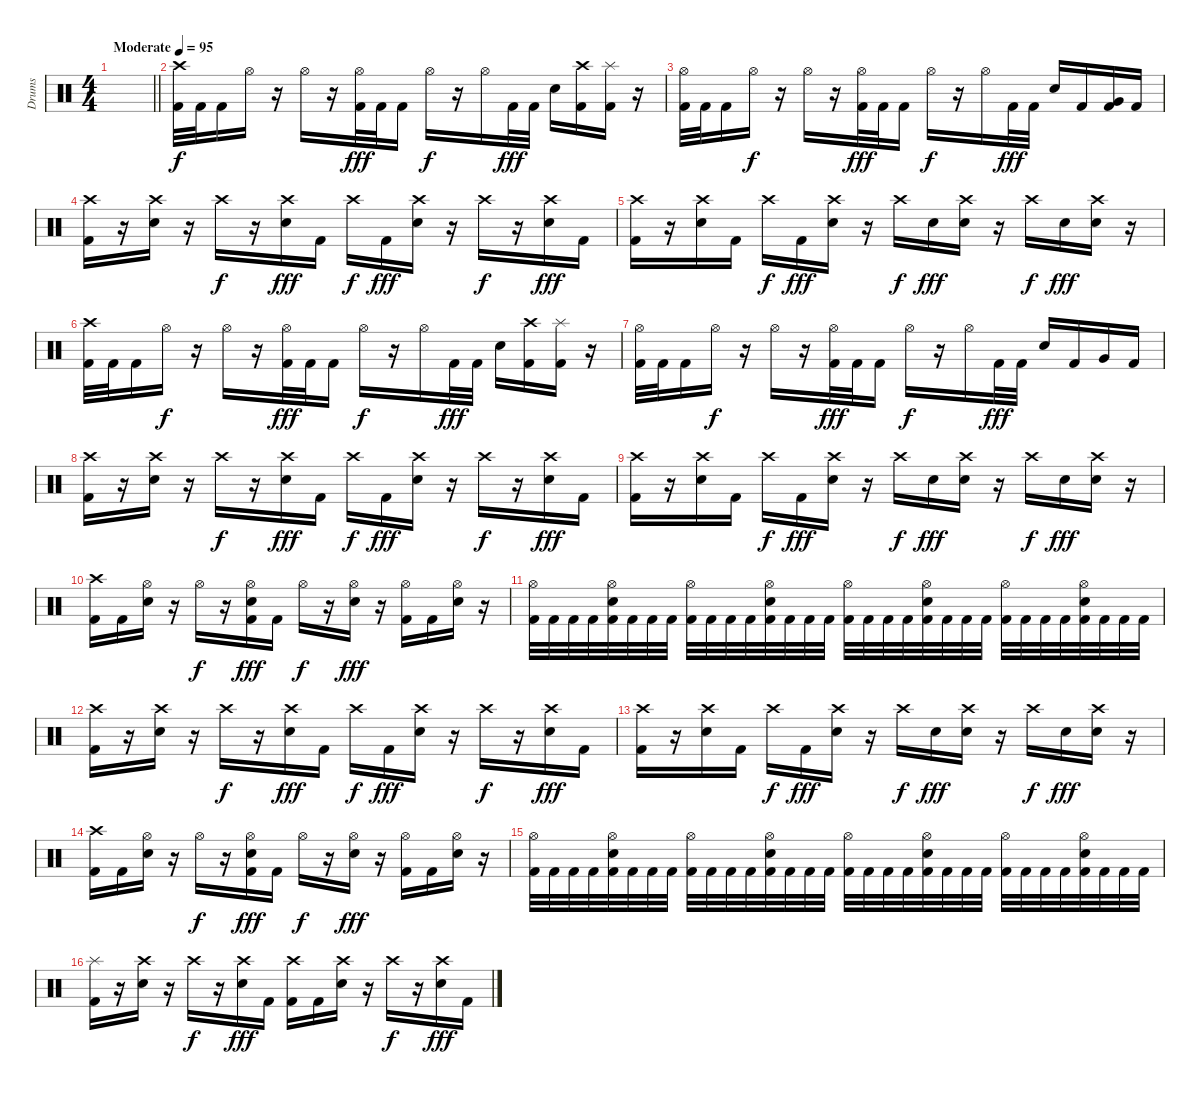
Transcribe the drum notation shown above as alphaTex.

\track ("Drums" "Drums") {instrument percussion}
\staff {score}
\articulation defaults
\ts (4 4)
\tempo (95 "Moderate")
\clef neutral
\barLineRight lightlight
\ks c
|
\section ("" "")
("Crash high (hit)" "Kick (hit) 2").32 "Kick (hit) 2".32 "Kick (hit) 2".16 "Hi-Hat (open)".16{dy f} r.16 "Hi-Hat (open)".16 r.16 ("Hi-Hat (open)" "Kick (hit) 2").32{dy fff} "Kick (hit) 2".32 "Kick (hit) 2".16 "Hi-Hat (open)".16{dy f} r.16 "Hi-Hat (open)".16 "Kick (hit) 2".32{dy fff} "Kick (hit) 2".32 "Electric Snare (hit)".16 ("Crash high (hit)" "Kick (hit) 2").16 ("Splash (hit)" "Kick (hit) 2").16 r.16 |
("Hi-Hat (open)" "Kick (hit) 2").32 "Kick (hit) 2".32 "Kick (hit) 2".16 "Hi-Hat (open)".16{dy f} r.16 "Hi-Hat (open)".16 r.16 ("Hi-Hat (open)" "Kick (hit) 2").32{dy fff} "Kick (hit) 2".32 "Kick (hit) 2".16 "Hi-Hat (open)".16{dy f} r.16 "Hi-Hat (open)".16 "Kick (hit) 2".32{dy fff} "Kick (hit) 2".32 "Electric Snare (hit)".16 "Kick (hit) 2".16 ("Very Low Tom (hit)" "Kick (hit) 2").16 "Kick (hit) 2".16 |
("Crash high (hit)" "Kick (hit) 2").16 r.16 ("Crash high (hit)" "Electric Snare (hit)").16 r.16 "Crash high (hit)".16{dy f} r.16 ("Crash high (hit)" "Electric Snare (hit)").16{dy fff} "Kick (hit) 2".16 "Crash high (hit)".16{dy f} "Kick (hit) 2".16{dy fff} ("Crash high (hit)" "Electric Snare (hit)").16 r.16 "Crash high (hit)".16{dy f} r.16 ("Crash high (hit)" "Electric Snare (hit)").16{dy fff} "Kick (hit) 2".16 |
("Crash high (hit)" "Kick (hit) 2").16 r.16 ("Crash high (hit)" "Electric Snare (hit)").16 "Kick (hit) 2".16 "Crash high (hit)".16{dy f} "Kick (hit) 2".16{dy fff} ("Crash high (hit)" "Electric Snare (hit)").16 r.16 "Crash high (hit)".16{dy f} "Electric Snare (hit)".16{dy fff} ("Crash high (hit)" "Electric Snare (hit)").16 r.16 "Crash high (hit)".16{dy f} "Electric Snare (hit)".16{dy fff} ("Crash high (hit)" "Electric Snare (hit)").16 r.16 |
("Crash high (hit)" "Kick (hit) 2").32 "Kick (hit) 2".32 "Kick (hit) 2".16 "Hi-Hat (open)".16{dy f} r.16 "Hi-Hat (open)".16 r.16 ("Hi-Hat (open)" "Kick (hit) 2").32{dy fff} "Kick (hit) 2".32 "Kick (hit) 2".16 "Hi-Hat (open)".16{dy f} r.16 "Hi-Hat (open)".16 "Kick (hit) 2".32{dy fff} "Kick (hit) 2".32 "Electric Snare (hit)".16 ("Crash high (hit)" "Kick (hit) 2").16 ("Splash (hit)" "Kick (hit) 2").16 r.16 |
("Hi-Hat (open)" "Kick (hit) 2").32 "Kick (hit) 2".32 "Kick (hit) 2".16 "Hi-Hat (open)".16{dy f} r.16 "Hi-Hat (open)".16 r.16 ("Hi-Hat (open)" "Kick (hit) 2").32{dy fff} "Kick (hit) 2".32 "Kick (hit) 2".16 "Hi-Hat (open)".16{dy f} r.16 "Hi-Hat (open)".16 "Kick (hit) 2".32{dy fff} "Kick (hit) 2".32 "Electric Snare (hit)".16 "Kick (hit) 2".16 "Very Low Tom (hit)".16 "Kick (hit) 2".16 |
("Crash high (hit)" "Kick (hit) 2").16 r.16 ("Crash high (hit)" "Electric Snare (hit)").16 r.16 "Crash high (hit)".16{dy f} r.16 ("Crash high (hit)" "Electric Snare (hit)").16{dy fff} "Kick (hit) 2".16 "Crash high (hit)".16{dy f} "Kick (hit) 2".16{dy fff} ("Crash high (hit)" "Electric Snare (hit)").16 r.16 "Crash high (hit)".16{dy f} r.16 ("Crash high (hit)" "Electric Snare (hit)").16{dy fff} "Kick (hit) 2".16 |
("Crash high (hit)" "Kick (hit) 2").16 r.16 ("Crash high (hit)" "Electric Snare (hit)").16 "Kick (hit) 2".16 "Crash high (hit)".16{dy f} "Kick (hit) 2".16{dy fff} ("Crash high (hit)" "Electric Snare (hit)").16 r.16 "Crash high (hit)".16{dy f} "Electric Snare (hit)".16{dy fff} ("Crash high (hit)" "Electric Snare (hit)").16 r.16 "Crash high (hit)".16{dy f} "Electric Snare (hit)".16{dy fff} ("Crash high (hit)" "Electric Snare (hit)").16 r.16 |
("Crash high (hit)" "Kick (hit) 2").16 "Kick (hit) 2".16 ("Hi-Hat (open)" "Electric Snare (hit)").16 r.16 "Hi-Hat (open)".16{dy f} r.16 ("Hi-Hat (open)" "Electric Snare (hit)" "Kick (hit) 2").16{dy fff} "Kick (hit) 2".16 "Hi-Hat (open)".16{dy f} r.16 ("Hi-Hat (open)" "Electric Snare (hit)").16{dy fff} r.16 ("Hi-Hat (open)" "Kick (hit) 2").16 "Kick (hit) 2".16 ("Hi-Hat (open)" "Electric Snare (hit)").16 r.16 |
("Hi-Hat (open)" "Kick (hit) 2").32 "Kick (hit) 2".32 "Kick (hit) 2".32 "Kick (hit) 2".32 ("Hi-Hat (open)" "Electric Snare (hit)" "Kick (hit) 2").32 "Kick (hit) 2".32 "Kick (hit) 2".32 "Kick (hit) 2".32 ("Hi-Hat (open)" "Kick (hit) 2").32 "Kick (hit) 2".32 "Kick (hit) 2".32 "Kick (hit) 2".32 ("Hi-Hat (open)" "Electric Snare (hit)" "Kick (hit) 2").32 "Kick (hit) 2".32 "Kick (hit) 2".32 "Kick (hit) 2".32 ("Hi-Hat (open)" "Kick (hit) 2").32 "Kick (hit) 2".32 "Kick (hit) 2".32 "Kick (hit) 2".32 ("Hi-Hat (open)" "Electric Snare (hit)" "Kick (hit) 2").32 "Kick (hit) 2".32 "Kick (hit) 2".32 "Kick (hit) 2".32 ("Hi-Hat (open)" "Kick (hit) 2").32 "Kick (hit) 2".32 "Kick (hit) 2".32 "Kick (hit) 2".32 ("Hi-Hat (open)" "Electric Snare (hit)" "Kick (hit) 2").32 "Kick (hit) 2".32 "Kick (hit) 2".32 "Kick (hit) 2".32 |
("Crash high (hit)" "Kick (hit) 2").16 r.16 ("Crash high (hit)" "Electric Snare (hit)").16 r.16 "Crash high (hit)".16{dy f} r.16 ("Crash high (hit)" "Electric Snare (hit)").16{dy fff} "Kick (hit) 2".16 "Crash high (hit)".16{dy f} "Kick (hit) 2".16{dy fff} ("Crash high (hit)" "Electric Snare (hit)").16 r.16 "Crash high (hit)".16{dy f} r.16 ("Crash high (hit)" "Electric Snare (hit)").16{dy fff} "Kick (hit) 2".16 |
("Crash high (hit)" "Kick (hit) 2").16 r.16 ("Crash high (hit)" "Electric Snare (hit)").16 "Kick (hit) 2".16 "Crash high (hit)".16{dy f} "Kick (hit) 2".16{dy fff} ("Crash high (hit)" "Electric Snare (hit)").16 r.16 "Crash high (hit)".16{dy f} "Electric Snare (hit)".16{dy fff} ("Crash high (hit)" "Electric Snare (hit)").16 r.16 "Crash high (hit)".16{dy f} "Electric Snare (hit)".16{dy fff} ("Crash high (hit)" "Electric Snare (hit)").16 r.16 |
("Crash high (hit)" "Kick (hit) 2").16 "Kick (hit) 2".16 ("Hi-Hat (open)" "Electric Snare (hit)").16 r.16 "Hi-Hat (open)".16{dy f} r.16 ("Hi-Hat (open)" "Electric Snare (hit)" "Kick (hit) 2").16{dy fff} "Kick (hit) 2".16 "Hi-Hat (open)".16{dy f} r.16 ("Hi-Hat (open)" "Electric Snare (hit)").16{dy fff} r.16 ("Hi-Hat (open)" "Kick (hit) 2").16 "Kick (hit) 2".16 ("Hi-Hat (open)" "Electric Snare (hit)").16 r.16 |
("Hi-Hat (open)" "Kick (hit) 2").32 "Kick (hit) 2".32 "Kick (hit) 2".32 "Kick (hit) 2".32 ("Hi-Hat (open)" "Electric Snare (hit)" "Kick (hit) 2").32 "Kick (hit) 2".32 "Kick (hit) 2".32 "Kick (hit) 2".32 ("Hi-Hat (open)" "Kick (hit) 2").32 "Kick (hit) 2".32 "Kick (hit) 2".32 "Kick (hit) 2".32 ("Hi-Hat (open)" "Electric Snare (hit)" "Kick (hit) 2").32 "Kick (hit) 2".32 "Kick (hit) 2".32 "Kick (hit) 2".32 ("Hi-Hat (open)" "Kick (hit) 2").32 "Kick (hit) 2".32 "Kick (hit) 2".32 "Kick (hit) 2".32 ("Hi-Hat (open)" "Electric Snare (hit)" "Kick (hit) 2").32 "Kick (hit) 2".32 "Kick (hit) 2".32 "Kick (hit) 2".32 ("Hi-Hat (open)" "Kick (hit) 2").32 "Kick (hit) 2".32 "Kick (hit) 2".32 "Kick (hit) 2".32 ("Hi-Hat (open)" "Electric Snare (hit)" "Kick (hit) 2").32 "Kick (hit) 2".32 "Kick (hit) 2".32 "Kick (hit) 2".32 |
("Splash (hit)" "Kick (hit) 2").16 r.16 ("Crash high (hit)" "Electric Snare (hit)").16 r.16 "Crash high (hit)".16{dy f} r.16 ("Crash high (hit)" "Electric Snare (hit)").16{dy fff} "Kick (hit) 2".16 ("Crash high (hit)" "Kick (hit) 2").16 "Kick (hit) 2".16 ("Crash high (hit)" "Electric Snare (hit)").16 r.16 "Crash high (hit)".16{dy f} r.16 ("Crash high (hit)" "Electric Snare (hit)").16{dy fff} "Kick (hit) 2".16
